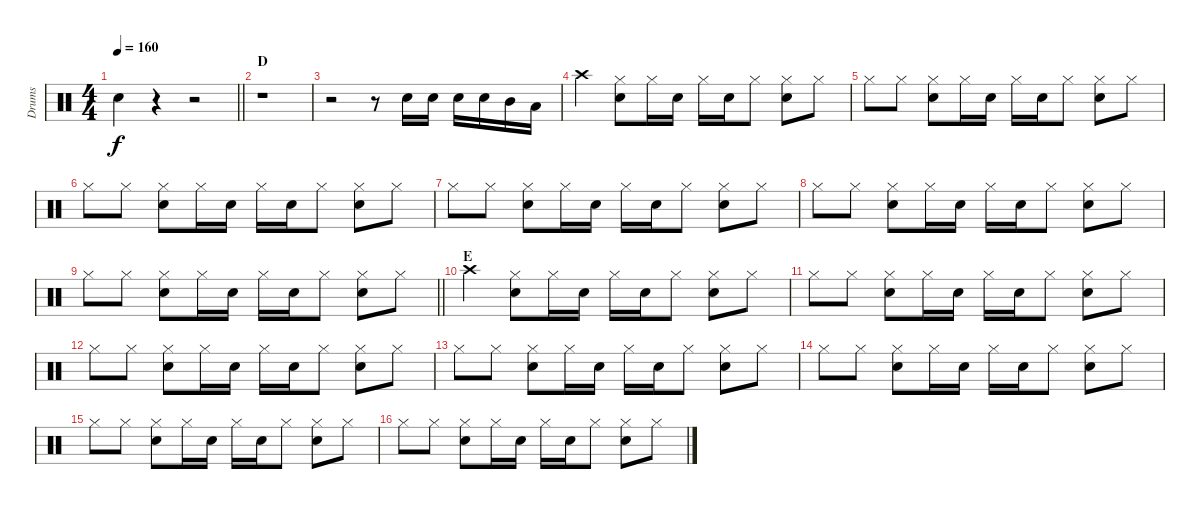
\track ("Drums" "Drums") {instrument percussion}
\staff {score}
\articulation defaults
\ts (4 4)
\tempo 160
\clef neutral
\barLineRight lightlight
\ks c "Snare (hit) 2".4{dy f}
r.4 r.2 |
\section ("" "D")
r.1 |
r.2 r.8 "Snare (hit) 2".16 "Snare (hit) 2".16 "Snare (hit) 2".16 "Snare (hit) 2".16 "Mid Tom (hit)".16 "Low Tom (hit)".16 |
"Crash high (hit)".4 ("Hi-Hat (closed)" "Snare (hit) 2").8 "Hi-Hat (closed)".16 "Snare (hit) 2".16 "Hi-Hat (closed)".16 "Snare (hit) 2".16 "Hi-Hat (closed)".8 ("Hi-Hat (closed)" "Snare (hit) 2").8 "Hi-Hat (closed)".8 |
"Hi-Hat (closed)".8 "Hi-Hat (closed)".8 ("Hi-Hat (closed)" "Snare (hit) 2").8 "Hi-Hat (closed)".16 "Snare (hit) 2".16 "Hi-Hat (closed)".16 "Snare (hit) 2".16 "Hi-Hat (closed)".8 ("Hi-Hat (closed)" "Snare (hit) 2").8 "Hi-Hat (closed)".8 |
"Hi-Hat (closed)".8 "Hi-Hat (closed)".8 ("Hi-Hat (closed)" "Snare (hit) 2").8 "Hi-Hat (closed)".16 "Snare (hit) 2".16 "Hi-Hat (closed)".16 "Snare (hit) 2".16 "Hi-Hat (closed)".8 ("Hi-Hat (closed)" "Snare (hit) 2").8 "Hi-Hat (closed)".8 |
"Hi-Hat (closed)".8 "Hi-Hat (closed)".8 ("Hi-Hat (closed)" "Snare (hit) 2").8 "Hi-Hat (closed)".16 "Snare (hit) 2".16 "Hi-Hat (closed)".16 "Snare (hit) 2".16 "Hi-Hat (closed)".8 ("Hi-Hat (closed)" "Snare (hit) 2").8 "Hi-Hat (closed)".8 |
"Hi-Hat (closed)".8 "Hi-Hat (closed)".8 ("Hi-Hat (closed)" "Snare (hit) 2").8 "Hi-Hat (closed)".16 "Snare (hit) 2".16 "Hi-Hat (closed)".16 "Snare (hit) 2".16 "Hi-Hat (closed)".8 ("Hi-Hat (closed)" "Snare (hit) 2").8 "Hi-Hat (closed)".8 |
\barLineRight lightlight "Hi-Hat (closed)".8 "Hi-Hat (closed)".8
("Hi-Hat (closed)" "Snare (hit) 2").8 "Hi-Hat (closed)".16 "Snare (hit) 2".16 "Hi-Hat (closed)".16 "Snare (hit) 2".16 "Hi-Hat (closed)".8 ("Hi-Hat (closed)" "Snare (hit) 2").8 "Hi-Hat (closed)".8 |
\section ("" "E")
"Crash high (hit)".4 ("Hi-Hat (closed)" "Snare (hit) 2").8 "Hi-Hat (closed)".16 "Snare (hit) 2".16 "Hi-Hat (closed)".16 "Snare (hit) 2".16 "Hi-Hat (closed)".8 ("Hi-Hat (closed)" "Snare (hit) 2").8 "Hi-Hat (closed)".8 |
"Hi-Hat (closed)".8 "Hi-Hat (closed)".8 ("Hi-Hat (closed)" "Snare (hit) 2").8 "Hi-Hat (closed)".16 "Snare (hit) 2".16 "Hi-Hat (closed)".16 "Snare (hit) 2".16 "Hi-Hat (closed)".8 ("Hi-Hat (closed)" "Snare (hit) 2").8 "Hi-Hat (closed)".8 |
"Hi-Hat (closed)".8 "Hi-Hat (closed)".8 ("Hi-Hat (closed)" "Snare (hit) 2").8 "Hi-Hat (closed)".16 "Snare (hit) 2".16 "Hi-Hat (closed)".16 "Snare (hit) 2".16 "Hi-Hat (closed)".8 ("Hi-Hat (closed)" "Snare (hit) 2").8 "Hi-Hat (closed)".8 |
"Hi-Hat (closed)".8 "Hi-Hat (closed)".8 ("Hi-Hat (closed)" "Snare (hit) 2").8 "Hi-Hat (closed)".16 "Snare (hit) 2".16 "Hi-Hat (closed)".16 "Snare (hit) 2".16 "Hi-Hat (closed)".8 ("Hi-Hat (closed)" "Snare (hit) 2").8 "Hi-Hat (closed)".8 |
"Hi-Hat (closed)".8 "Hi-Hat (closed)".8 ("Hi-Hat (closed)" "Snare (hit) 2").8 "Hi-Hat (closed)".16 "Snare (hit) 2".16 "Hi-Hat (closed)".16 "Snare (hit) 2".16 "Hi-Hat (closed)".8 ("Hi-Hat (closed)" "Snare (hit) 2").8 "Hi-Hat (closed)".8 |
"Hi-Hat (closed)".8 "Hi-Hat (closed)".8 ("Hi-Hat (closed)" "Snare (hit) 2").8 "Hi-Hat (closed)".16 "Snare (hit) 2".16 "Hi-Hat (closed)".16 "Snare (hit) 2".16 "Hi-Hat (closed)".8 ("Hi-Hat (closed)" "Snare (hit) 2").8 "Hi-Hat (closed)".8 |
"Hi-Hat (closed)".8 "Hi-Hat (closed)".8 ("Hi-Hat (closed)" "Snare (hit) 2").8 "Hi-Hat (closed)".16 "Snare (hit) 2".16 "Hi-Hat (closed)".16 "Snare (hit) 2".16 "Hi-Hat (closed)".8 ("Hi-Hat (closed)" "Snare (hit) 2").8 "Hi-Hat (closed)".8
